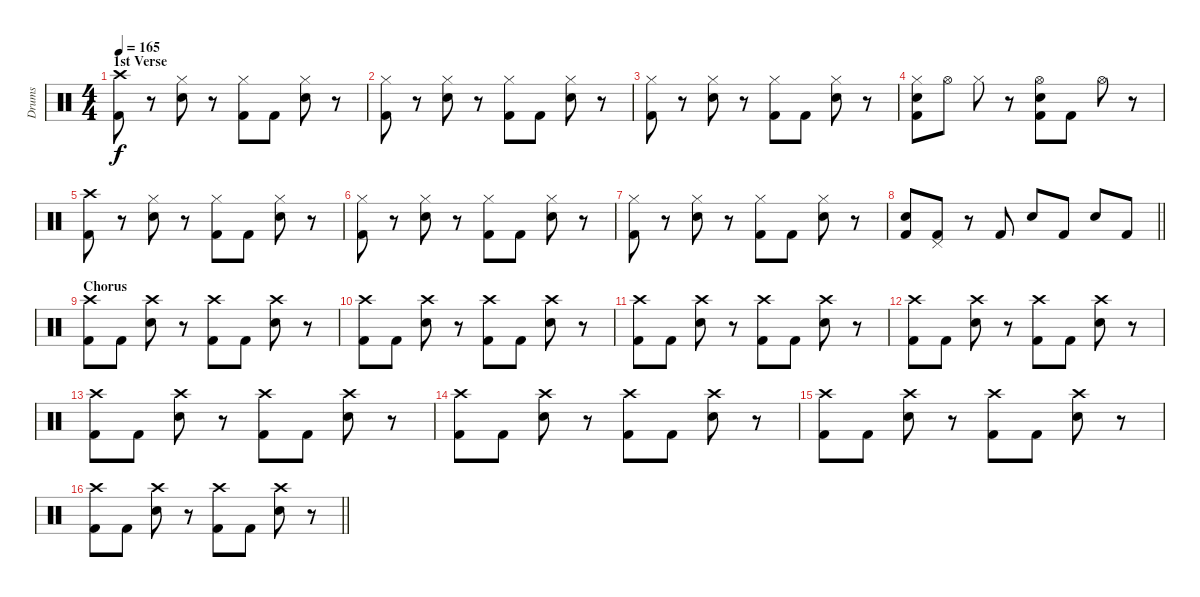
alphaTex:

\track ("Drums" "Drums") {instrument percussion}
\staff {score}
\articulation defaults
\ts (4 4)
\section ("" "1st Verse")
\tempo 165
\clef neutral
\ks c
("Crash high (hit)" "Kick (hit) 2").8{dy f} r.8 ("Hi-Hat (closed)" "Electric Snare (hit)").8 r.8 ("Hi-Hat (closed)" "Kick (hit) 2").8 "Kick (hit) 2".8 ("Hi-Hat (closed)" "Electric Snare (hit)").8 r.8 |
("Hi-Hat (closed)" "Kick (hit) 2").8 r.8 ("Hi-Hat (closed)" "Electric Snare (hit)").8 r.8 ("Hi-Hat (closed)" "Kick (hit) 2").8 "Kick (hit) 2".8 ("Hi-Hat (closed)" "Electric Snare (hit)").8 r.8 |
("Hi-Hat (closed)" "Kick (hit) 2").8 r.8 ("Hi-Hat (closed)" "Electric Snare (hit)").8 r.8 ("Hi-Hat (closed)" "Kick (hit) 2").8 "Kick (hit) 2".8 ("Hi-Hat (closed)" "Electric Snare (hit)").8 r.8 |
("Hi-Hat (closed)" "Electric Snare (hit)" "Kick (hit) 2").8 "Hi-Hat (open)".8 "Hi-Hat (closed)".8 r.8 ("Hi-Hat (open)" "Electric Snare (hit)" "Kick (hit) 2").8 "Kick (hit) 2".8 "Hi-Hat (open)".8 r.8 |
("Crash high (hit)" "Kick (hit) 2").8 r.8 ("Hi-Hat (closed)" "Electric Snare (hit)").8 r.8 ("Hi-Hat (closed)" "Kick (hit) 2").8 "Kick (hit) 2".8 ("Hi-Hat (closed)" "Electric Snare (hit)").8 r.8 |
("Hi-Hat (closed)" "Kick (hit) 2").8 r.8 ("Hi-Hat (closed)" "Electric Snare (hit)").8 r.8 ("Hi-Hat (closed)" "Kick (hit) 2").8 "Kick (hit) 2".8 ("Hi-Hat (closed)" "Electric Snare (hit)").8 r.8 |
("Hi-Hat (closed)" "Kick (hit) 2").8 r.8 ("Hi-Hat (closed)" "Electric Snare (hit)").8 r.8 ("Hi-Hat (closed)" "Kick (hit) 2").8 "Kick (hit) 2".8 ("Hi-Hat (closed)" "Electric Snare (hit)").8 r.8 |
\barLineRight lightlight
("Electric Snare (hit)" "Kick (hit) 2").8 ("Pedal Hi-Hat (hit)" "Kick (hit) 2").8 r.8 "Kick (hit) 2".8 "Electric Snare (hit)".8 "Kick (hit) 2".8 "Electric Snare (hit)".8 "Kick (hit) 2".8 |
\section ("" "Chorus")
("Crash high (hit)" "Kick (hit) 2").8 "Kick (hit) 2".8 ("Crash high (hit)" "Electric Snare (hit)").8 r.8 ("Crash high (hit)" "Kick (hit) 2").8 "Kick (hit) 2".8 ("Crash high (hit)" "Electric Snare (hit)").8 r.8 |
("Crash high (hit)" "Kick (hit) 2").8 "Kick (hit) 2".8 ("Crash high (hit)" "Electric Snare (hit)").8 r.8 ("Crash high (hit)" "Kick (hit) 2").8 "Kick (hit) 2".8 ("Crash high (hit)" "Electric Snare (hit)").8 r.8 |
("Crash high (hit)" "Kick (hit) 2").8 "Kick (hit) 2".8 ("Crash high (hit)" "Electric Snare (hit)").8 r.8 ("Crash high (hit)" "Kick (hit) 2").8 "Kick (hit) 2".8 ("Crash high (hit)" "Electric Snare (hit)").8 r.8 |
("Crash high (hit)" "Kick (hit) 2").8 "Kick (hit) 2".8 ("Crash high (hit)" "Electric Snare (hit)").8 r.8 ("Crash high (hit)" "Kick (hit) 2").8 "Kick (hit) 2".8 ("Crash high (hit)" "Electric Snare (hit)").8 r.8 |
("Crash high (hit)" "Kick (hit) 2").8 "Kick (hit) 2".8 ("Crash high (hit)" "Electric Snare (hit)").8 r.8 ("Crash high (hit)" "Kick (hit) 2").8 "Kick (hit) 2".8 ("Crash high (hit)" "Electric Snare (hit)").8 r.8 |
("Crash high (hit)" "Kick (hit) 2").8 "Kick (hit) 2".8 ("Crash high (hit)" "Electric Snare (hit)").8 r.8 ("Crash high (hit)" "Kick (hit) 2").8 "Kick (hit) 2".8 ("Crash high (hit)" "Electric Snare (hit)").8 r.8 |
("Crash high (hit)" "Kick (hit) 2").8 "Kick (hit) 2".8 ("Crash high (hit)" "Electric Snare (hit)").8 r.8 ("Crash high (hit)" "Kick (hit) 2").8 "Kick (hit) 2".8 ("Crash high (hit)" "Electric Snare (hit)").8 r.8 |
\barLineRight lightlight
("Crash high (hit)" "Kick (hit) 2").8 "Kick (hit) 2".8 ("Crash high (hit)" "Electric Snare (hit)").8 r.8 ("Crash high (hit)" "Kick (hit) 2").8 "Kick (hit) 2".8 ("Crash high (hit)" "Electric Snare (hit)").8 r.8
